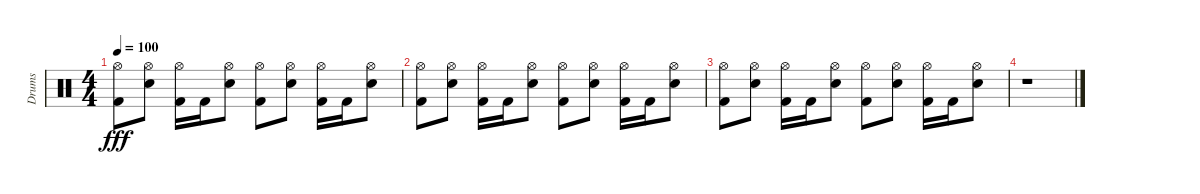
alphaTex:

\track ("Drums" "Drums") {instrument percussion}
\staff {score}
\articulation defaults
\ts (4 4)
\tempo 100
\clef neutral
\ks c
("Kick (hit) 2" "Hi-Hat (open)").8{dy fff} ("Hi-Hat (open)" "Electric Snare (hit)").8 ("Hi-Hat (open)" "Kick (hit) 2").16 "Kick (hit) 2".16 ("Hi-Hat (open)" "Electric Snare (hit)").8 ("Kick (hit) 2" "Hi-Hat (open)").8 ("Hi-Hat (open)" "Electric Snare (hit)").8 ("Hi-Hat (open)" "Kick (hit) 2").16 "Kick (hit) 2".16 ("Hi-Hat (open)" "Electric Snare (hit)").8 |
("Kick (hit) 2" "Hi-Hat (open)").8{volume 1} ("Hi-Hat (open)" "Electric Snare (hit)").8 ("Kick (hit) 2" "Hi-Hat (open)").16 "Kick (hit) 2".16 ("Hi-Hat (open)" "Electric Snare (hit)").8 ("Kick (hit) 2" "Hi-Hat (open)").8 ("Hi-Hat (open)" "Electric Snare (hit)").8 ("Hi-Hat (open)" "Kick (hit) 2").16 "Kick (hit) 2".16 ("Hi-Hat (open)" "Electric Snare (hit)").8 |
("Kick (hit) 2" "Hi-Hat (open)").8 ("Hi-Hat (open)" "Electric Snare (hit)").8 ("Kick (hit) 2" "Hi-Hat (open)").16 "Kick (hit) 2".16 ("Hi-Hat (open)" "Electric Snare (hit)").8 ("Kick (hit) 2" "Hi-Hat (open)").8 ("Hi-Hat (open)" "Electric Snare (hit)").8 ("Hi-Hat (open)" "Kick (hit) 2").16 "Kick (hit) 2".16 ("Hi-Hat (open)" "Electric Snare (hit)").8 |
r.1
